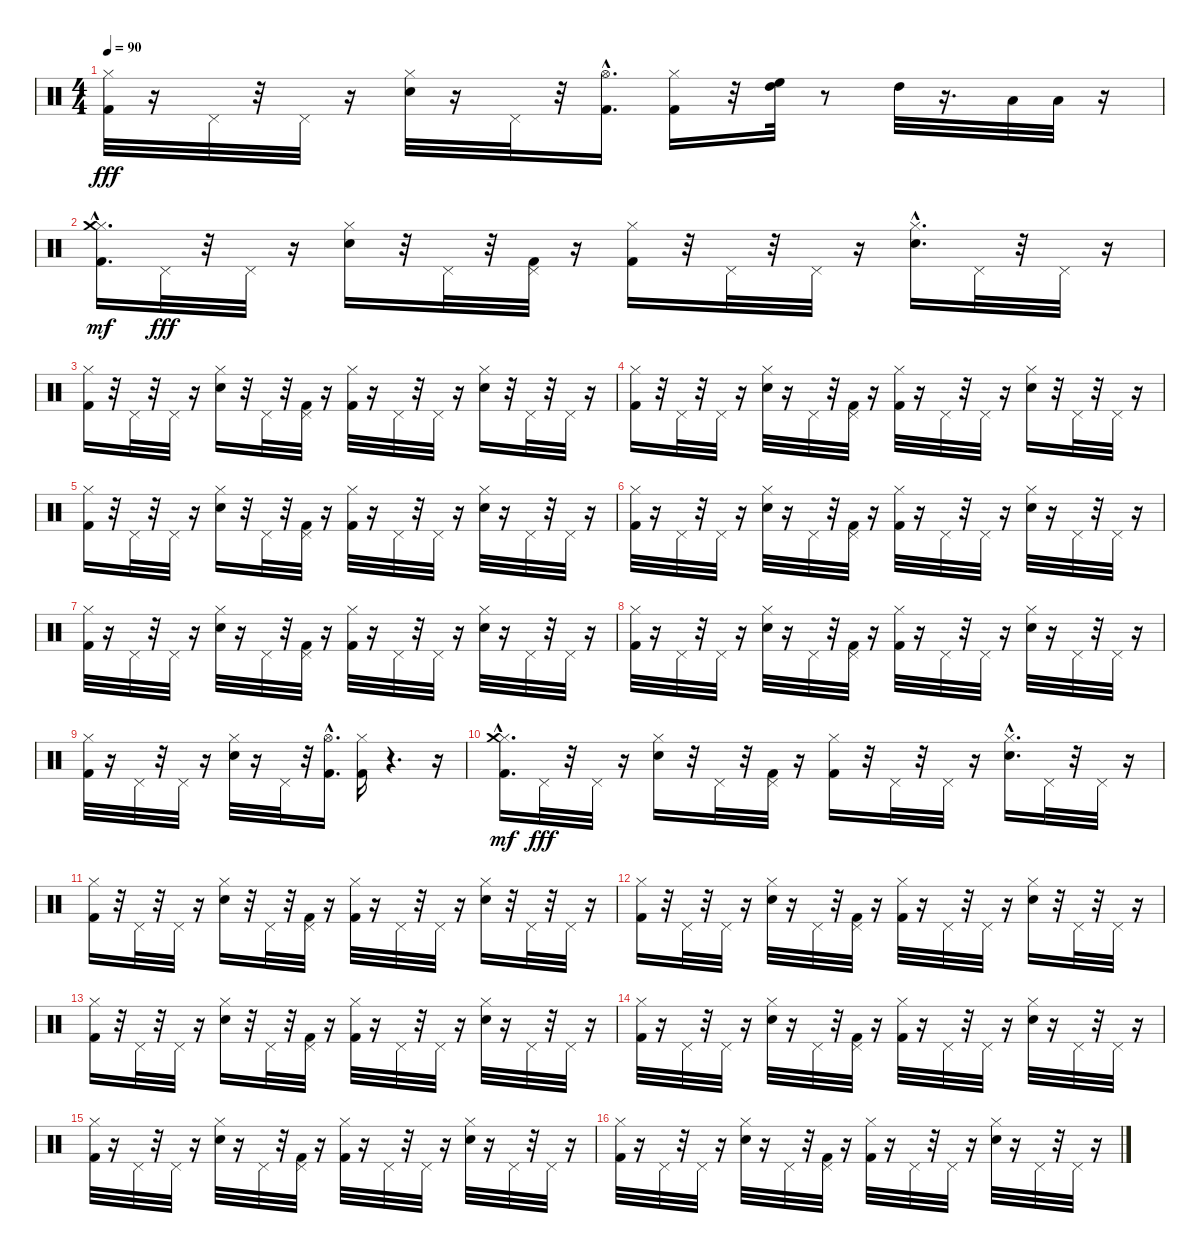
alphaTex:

\track "" {instrument percussion}
\staff {score}
\articulation defaults
\ts (4 4)
\tempo 90
\clef neutral
\ks c
("Kick (hit) 2" "Hi-Hat (closed)").32{dy fff} r.16 "Pedal Hi-Hat (hit)".32 r.32 "Pedal Hi-Hat (hit)".32 r.16 ("Snare (hit) 2" "Hi-Hat (closed)").32 r.16 "Pedal Hi-Hat (hit)".32 r.32 ("Kick (hit) 2" "Hi-Hat (open)"{hac}).16{d} ("Kick (hit) 2" "Hi-Hat (closed)").16 r.32 ("High Floor Tom (hit)" "High Tom (hit)").32 r.8 "High Tom (hit)".32 r.16{d} "Low Tom (hit)".32 "Low Floor Tom (hit)".32 r.16 |
("Kick (hit) 2"{hac} "Hi-Hat (closed)" "Crash medium (hit)").16{d dy mf} "Pedal Hi-Hat (hit)".32{dy fff} r.32 "Pedal Hi-Hat (hit)".32 r.16 ("Snare (hit) 2" "Hi-Hat (closed)").16 r.32 "Pedal Hi-Hat (hit)".32 r.32 ("Kick (hit) 2" "Pedal Hi-Hat (hit)").32 r.16 ("Kick (hit) 2" "Hi-Hat (closed)").16 r.32 "Pedal Hi-Hat (hit)".32 r.32 "Pedal Hi-Hat (hit)".32 r.16 ("Snare (hit) 2"{hac} "Hi-Hat (closed)").16{d} "Pedal Hi-Hat (hit)".32 r.32 "Pedal Hi-Hat (hit)".32 r.16 |
("Kick (hit) 2" "Hi-Hat (closed)").16 r.32 "Pedal Hi-Hat (hit)".32 r.32 "Pedal Hi-Hat (hit)".32 r.16 ("Snare (hit) 2" "Hi-Hat (closed)").16 r.32 "Pedal Hi-Hat (hit)".32 r.32 ("Kick (hit) 2" "Pedal Hi-Hat (hit)").32 r.16 ("Kick (hit) 2" "Hi-Hat (closed)").32 r.16 "Pedal Hi-Hat (hit)".32 r.32 "Pedal Hi-Hat (hit)".32 r.16 ("Snare (hit) 2" "Hi-Hat (closed)").16 r.32 "Pedal Hi-Hat (hit)".32 r.32 "Pedal Hi-Hat (hit)".32 r.16 |
("Kick (hit) 2" "Hi-Hat (closed)").16 r.32 "Pedal Hi-Hat (hit)".32 r.32 "Pedal Hi-Hat (hit)".32 r.16 ("Snare (hit) 2" "Hi-Hat (closed)").32 r.16 "Pedal Hi-Hat (hit)".32 r.32 ("Kick (hit) 2" "Pedal Hi-Hat (hit)").32 r.16 ("Kick (hit) 2" "Hi-Hat (closed)").32 r.16 "Pedal Hi-Hat (hit)".32 r.32 "Pedal Hi-Hat (hit)".32 r.16 ("Snare (hit) 2" "Hi-Hat (closed)").16 r.32 "Pedal Hi-Hat (hit)".32 r.32 "Pedal Hi-Hat (hit)".32 r.16 |
("Kick (hit) 2" "Hi-Hat (closed)").16 r.32 "Pedal Hi-Hat (hit)".32 r.32 "Pedal Hi-Hat (hit)".32 r.16 ("Snare (hit) 2" "Hi-Hat (closed)").16 r.32 "Pedal Hi-Hat (hit)".32 r.32 ("Kick (hit) 2" "Pedal Hi-Hat (hit)").32 r.16 ("Kick (hit) 2" "Hi-Hat (closed)").32 r.16 "Pedal Hi-Hat (hit)".32 r.32 "Pedal Hi-Hat (hit)".32 r.16 ("Snare (hit) 2" "Hi-Hat (closed)").32 r.16 "Pedal Hi-Hat (hit)".32 r.32 "Pedal Hi-Hat (hit)".32 r.16 |
("Kick (hit) 2" "Hi-Hat (closed)").32 r.16 "Pedal Hi-Hat (hit)".32 r.32 "Pedal Hi-Hat (hit)".32 r.16 ("Snare (hit) 2" "Hi-Hat (closed)").32 r.16 "Pedal Hi-Hat (hit)".32 r.32 ("Kick (hit) 2" "Pedal Hi-Hat (hit)").32 r.16 ("Kick (hit) 2" "Hi-Hat (closed)").32 r.16 "Pedal Hi-Hat (hit)".32 r.32 "Pedal Hi-Hat (hit)".32 r.16 ("Snare (hit) 2" "Hi-Hat (closed)").32 r.16 "Pedal Hi-Hat (hit)".32 r.32 "Pedal Hi-Hat (hit)".32 r.16 |
("Kick (hit) 2" "Hi-Hat (closed)").32 r.16 "Pedal Hi-Hat (hit)".32 r.32 "Pedal Hi-Hat (hit)".32 r.16 ("Snare (hit) 2" "Hi-Hat (closed)").32 r.16 "Pedal Hi-Hat (hit)".32 r.32 ("Kick (hit) 2" "Pedal Hi-Hat (hit)").32 r.16 ("Kick (hit) 2" "Hi-Hat (closed)").32 r.16 "Pedal Hi-Hat (hit)".32 r.32 "Pedal Hi-Hat (hit)".32 r.16 ("Snare (hit) 2" "Hi-Hat (closed)").32 r.16 "Pedal Hi-Hat (hit)".32 r.32 "Pedal Hi-Hat (hit)".32 r.16 |
("Kick (hit) 2" "Hi-Hat (closed)").32 r.16 "Pedal Hi-Hat (hit)".32 r.32 "Pedal Hi-Hat (hit)".32 r.16 ("Snare (hit) 2" "Hi-Hat (closed)").32 r.16 "Pedal Hi-Hat (hit)".32 r.32 ("Kick (hit) 2" "Pedal Hi-Hat (hit)").32 r.16 ("Kick (hit) 2" "Hi-Hat (closed)").32 r.16 "Pedal Hi-Hat (hit)".32 r.32 "Pedal Hi-Hat (hit)".32 r.16 ("Snare (hit) 2" "Hi-Hat (closed)").32 r.16 "Pedal Hi-Hat (hit)".32 r.32 "Pedal Hi-Hat (hit)".32 r.16 |
("Kick (hit) 2" "Hi-Hat (closed)").32 r.16 "Pedal Hi-Hat (hit)".32 r.32 "Pedal Hi-Hat (hit)".32 r.16 ("Snare (hit) 2" "Hi-Hat (closed)").32 r.16 "Pedal Hi-Hat (hit)".32 r.32 ("Kick (hit) 2" "Hi-Hat (open)"{hac}).16{d} ("Kick (hit) 2" "Hi-Hat (closed)").16 r.4{d} r.16 |
("Kick (hit) 2"{hac} "Hi-Hat (closed)" "Crash medium (hit)").16{d dy mf} "Pedal Hi-Hat (hit)".32{dy fff} r.32 "Pedal Hi-Hat (hit)".32 r.16 ("Snare (hit) 2" "Hi-Hat (closed)").16 r.32 "Pedal Hi-Hat (hit)".32 r.32 ("Kick (hit) 2" "Pedal Hi-Hat (hit)").32 r.16 ("Kick (hit) 2" "Hi-Hat (closed)").16 r.32 "Pedal Hi-Hat (hit)".32 r.32 "Pedal Hi-Hat (hit)".32 r.16 ("Snare (hit) 2"{hac} "Hi-Hat (closed)").16{d} "Pedal Hi-Hat (hit)".32 r.32 "Pedal Hi-Hat (hit)".32 r.16 |
("Kick (hit) 2" "Hi-Hat (closed)").16 r.32 "Pedal Hi-Hat (hit)".32 r.32 "Pedal Hi-Hat (hit)".32 r.16 ("Snare (hit) 2" "Hi-Hat (closed)").16 r.32 "Pedal Hi-Hat (hit)".32 r.32 ("Kick (hit) 2" "Pedal Hi-Hat (hit)").32 r.16 ("Kick (hit) 2" "Hi-Hat (closed)").32 r.16 "Pedal Hi-Hat (hit)".32 r.32 "Pedal Hi-Hat (hit)".32 r.16 ("Snare (hit) 2" "Hi-Hat (closed)").16 r.32 "Pedal Hi-Hat (hit)".32 r.32 "Pedal Hi-Hat (hit)".32 r.16 |
("Kick (hit) 2" "Hi-Hat (closed)").16 r.32 "Pedal Hi-Hat (hit)".32 r.32 "Pedal Hi-Hat (hit)".32 r.16 ("Snare (hit) 2" "Hi-Hat (closed)").32 r.16 "Pedal Hi-Hat (hit)".32 r.32 ("Kick (hit) 2" "Pedal Hi-Hat (hit)").32 r.16 ("Kick (hit) 2" "Hi-Hat (closed)").32 r.16 "Pedal Hi-Hat (hit)".32 r.32 "Pedal Hi-Hat (hit)".32 r.16 ("Snare (hit) 2" "Hi-Hat (closed)").16 r.32 "Pedal Hi-Hat (hit)".32 r.32 "Pedal Hi-Hat (hit)".32 r.16 |
("Kick (hit) 2" "Hi-Hat (closed)").16 r.32 "Pedal Hi-Hat (hit)".32 r.32 "Pedal Hi-Hat (hit)".32 r.16 ("Snare (hit) 2" "Hi-Hat (closed)").16 r.32 "Pedal Hi-Hat (hit)".32 r.32 ("Kick (hit) 2" "Pedal Hi-Hat (hit)").32 r.16 ("Kick (hit) 2" "Hi-Hat (closed)").32 r.16 "Pedal Hi-Hat (hit)".32 r.32 "Pedal Hi-Hat (hit)".32 r.16 ("Snare (hit) 2" "Hi-Hat (closed)").32 r.16 "Pedal Hi-Hat (hit)".32 r.32 "Pedal Hi-Hat (hit)".32 r.16 |
("Kick (hit) 2" "Hi-Hat (closed)").32 r.16 "Pedal Hi-Hat (hit)".32 r.32 "Pedal Hi-Hat (hit)".32 r.16 ("Snare (hit) 2" "Hi-Hat (closed)").32 r.16 "Pedal Hi-Hat (hit)".32 r.32 ("Kick (hit) 2" "Pedal Hi-Hat (hit)").32 r.16 ("Kick (hit) 2" "Hi-Hat (closed)").32 r.16 "Pedal Hi-Hat (hit)".32 r.32 "Pedal Hi-Hat (hit)".32 r.16 ("Snare (hit) 2" "Hi-Hat (closed)").32 r.16 "Pedal Hi-Hat (hit)".32 r.32 "Pedal Hi-Hat (hit)".32 r.16 |
("Kick (hit) 2" "Hi-Hat (closed)").32 r.16 "Pedal Hi-Hat (hit)".32 r.32 "Pedal Hi-Hat (hit)".32 r.16 ("Snare (hit) 2" "Hi-Hat (closed)").32 r.16 "Pedal Hi-Hat (hit)".32 r.32 ("Kick (hit) 2" "Pedal Hi-Hat (hit)").32 r.16 ("Kick (hit) 2" "Hi-Hat (closed)").32 r.16 "Pedal Hi-Hat (hit)".32 r.32 "Pedal Hi-Hat (hit)".32 r.16 ("Snare (hit) 2" "Hi-Hat (closed)").32 r.16 "Pedal Hi-Hat (hit)".32 r.32 "Pedal Hi-Hat (hit)".32 r.16 |
("Kick (hit) 2" "Hi-Hat (closed)").32 r.16 "Pedal Hi-Hat (hit)".32 r.32 "Pedal Hi-Hat (hit)".32 r.16 ("Snare (hit) 2" "Hi-Hat (closed)").32 r.16 "Pedal Hi-Hat (hit)".32 r.32 ("Kick (hit) 2" "Pedal Hi-Hat (hit)").32 r.16 ("Kick (hit) 2" "Hi-Hat (closed)").32 r.16 "Pedal Hi-Hat (hit)".32 r.32 "Pedal Hi-Hat (hit)".32 r.16 ("Snare (hit) 2" "Hi-Hat (closed)").32 r.16 "Pedal Hi-Hat (hit)".32 r.32 "Pedal Hi-Hat (hit)".32 r.16
